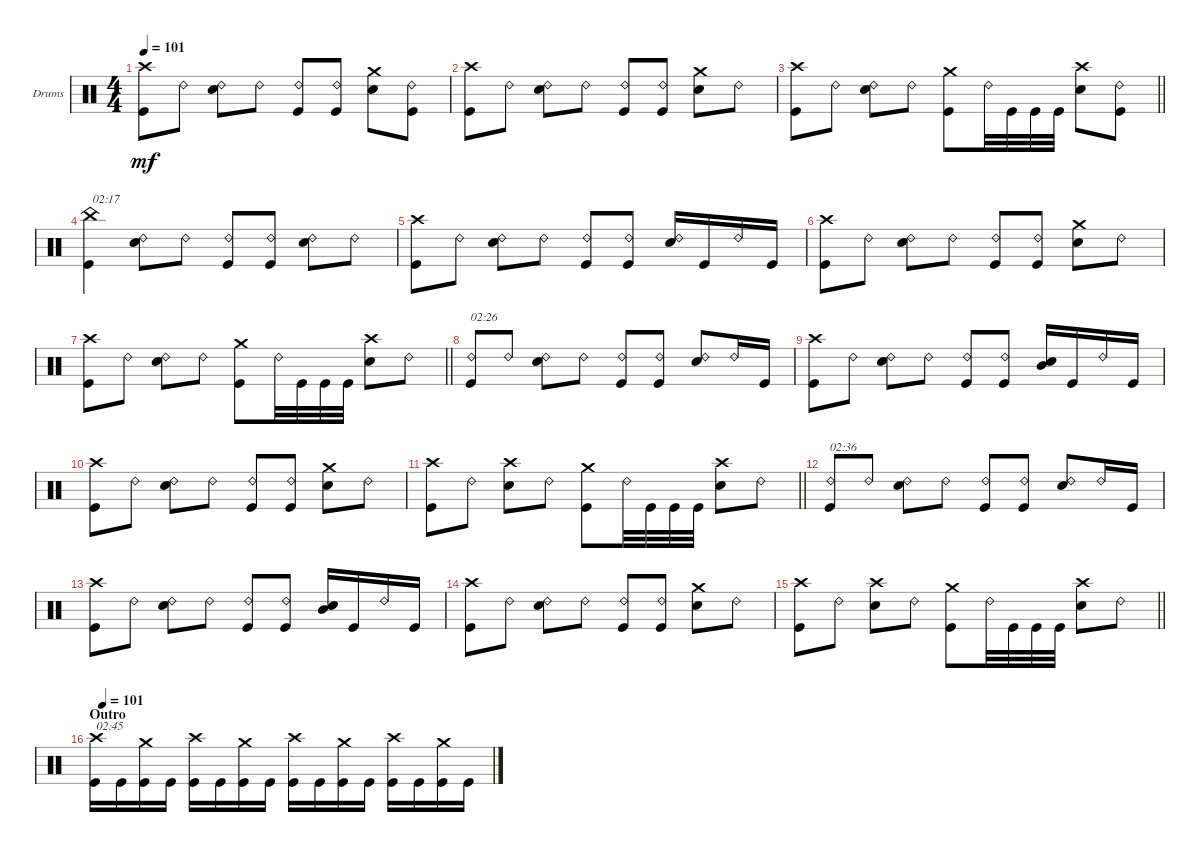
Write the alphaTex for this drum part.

\bracketExtendMode groupsimilarinstruments
\firstSystemTrackNameOrientation horizontal
\otherSystemsTrackNameOrientation horizontal
\track ("Drumkit" "Drums") {instrument percussion}
\staff {score}
\articulation defaults
\ts (4 4)
\tempo 101
\clef neutral
\ks c
("Kick (hit)" "Crash high (hit)").8{dy mf} "Ride (bell) 2".8 ("Snare (hit) 2" "Ride (bell) 2").8 "Ride (bell) 2".8 ("Kick (hit)" "Ride (bell) 2").8 ("Kick (hit)" "Ride (bell) 2").8 ("Snare (hit) 2" "Crash medium (hit)").8 ("Ride (bell) 2" "Kick (hit)").8 |
("Kick (hit)" "Crash high (hit)").8 "Ride (bell) 2".8 ("Snare (hit) 2" "Ride (bell) 2").8 "Ride (bell) 2".8 ("Kick (hit)" "Ride (bell) 2").8 ("Kick (hit)" "Ride (bell) 2").8 ("Snare (hit) 2" "Crash medium (hit)").8 "Ride (bell) 2".8 |
\barLineRight lightlight
("Kick (hit)" "Crash high (hit)").8 "Ride (bell) 2".8 ("Snare (hit) 2" "Ride (bell) 2").8 "Ride (bell) 2".8 ("Kick (hit)" "Crash medium (hit)").8 "Ride (bell) 2".32 "Kick (hit)".32 "Kick (hit)".32 "Kick (hit)".32 ("Snare (hit) 2" "Crash high (hit)").8 ("Ride (bell) 2" "Kick (hit)").8 |
("Kick (hit)" "China (hit)").4{txt "02:17"} ("Snare (hit) 2" "Ride (bell) 2").8 "Ride (bell) 2".8 ("Kick (hit)" "Ride (bell) 2").8 ("Ride (bell) 2" "Kick (hit)").8 ("Snare (hit) 2" "Ride (bell) 2").8 "Ride (bell) 2".8 |
("Kick (hit)" "Crash high (hit)").8 "Ride (bell) 2".8 ("Snare (hit) 2" "Ride (bell) 2").8 "Ride (bell) 2".8 ("Kick (hit)" "Ride (bell) 2").8 ("Kick (hit)" "Ride (bell) 2").8 ("Snare (hit) 2" "Ride (bell) 2").16 "Kick (hit)".16 "Ride (bell) 2".16 "Kick (hit)".16 |
("Kick (hit)" "Crash high (hit)").8 "Ride (bell) 2".8 ("Snare (hit) 2" "Ride (bell) 2").8 "Ride (bell) 2".8 ("Kick (hit)" "Ride (bell) 2").8 ("Ride (bell) 2" "Kick (hit)").8 ("Snare (hit) 2" "Crash medium (hit)").8 "Ride (bell) 2".8 |
\barLineRight lightlight
("Kick (hit)" "Crash high (hit)").8 "Ride (bell) 2".8 ("Snare (hit) 2" "Ride (bell) 2").8 "Ride (bell) 2".8 ("Kick (hit)" "Crash medium (hit)").8 "Ride (bell) 2".32 "Kick (hit)".32 "Kick (hit)".32 "Kick (hit)".32 ("Snare (hit) 2" "Crash high (hit)").8 "Ride (bell) 2".8 |
("Kick (hit)" "Ride (bell) 2").8{txt "02:26"} "Ride (bell) 2".8 ("Snare (hit) 2" "Ride (bell) 2").8 "Ride (bell) 2".8 ("Kick (hit)" "Ride (bell) 2").8 ("Ride (bell) 2" "Kick (hit)").8 ("Snare (hit) 2" "Ride (bell) 2").8 "Ride (bell) 2".16 "Kick (hit)".16 |
("Kick (hit)" "Crash high (hit)").8 "Ride (bell) 2".8 ("Snare (hit) 2" "Ride (bell) 2").8 "Ride (bell) 2".8 ("Kick (hit)" "Ride (bell) 2").8 ("Ride (bell) 2" "Kick (hit)").8 ("Snare (hit) 2" "Mid Tom (hit)").16 "Kick (hit)".16 "Ride (bell) 2".16 "Kick (hit)".16 |
("Kick (hit)" "Crash high (hit)").8 "Ride (bell) 2".8 ("Snare (hit) 2" "Ride (bell) 2").8 "Ride (bell) 2".8 ("Kick (hit)" "Ride (bell) 2").8 ("Ride (bell) 2" "Kick (hit)").8 ("Snare (hit) 2" "Crash medium (hit)").8 "Ride (bell) 2".8 |
\barLineRight lightlight
("Kick (hit)" "Crash high (hit)").8 "Ride (bell) 2".8 ("Snare (hit) 2" "Crash high (hit)").8 "Ride (bell) 2".8 ("Kick (hit)" "Crash medium (hit)").8 "Ride (bell) 2".32 "Kick (hit)".32 "Kick (hit)".32 "Kick (hit)".32 ("Snare (hit) 2" "Crash high (hit)").8 "Ride (bell) 2".8 |
("Kick (hit)" "Ride (bell) 2").8{txt "02:36"} "Ride (bell) 2".8 ("Snare (hit) 2" "Ride (bell) 2").8 "Ride (bell) 2".8 ("Kick (hit)" "Ride (bell) 2").8 ("Ride (bell) 2" "Kick (hit)").8 ("Snare (hit) 2" "Ride (bell) 2").8 "Ride (bell) 2".16 "Kick (hit)".16 |
("Kick (hit)" "Crash high (hit)").8 "Ride (bell) 2".8 ("Snare (hit) 2" "Ride (bell) 2").8 "Ride (bell) 2".8 ("Kick (hit)" "Ride (bell) 2").8 ("Ride (bell) 2" "Kick (hit)").8 ("Snare (hit) 2" "Mid Tom (hit)").16 "Kick (hit)".16 "Ride (bell) 2".16 "Kick (hit)".16 |
("Kick (hit)" "Crash high (hit)").8 "Ride (bell) 2".8 ("Snare (hit) 2" "Ride (bell) 2").8 "Ride (bell) 2".8 ("Kick (hit)" "Ride (bell) 2").8 ("Ride (bell) 2" "Kick (hit)").8 ("Snare (hit) 2" "Crash medium (hit)").8 "Ride (bell) 2".8 |
\barLineRight lightlight
("Kick (hit)" "Crash high (hit)").8 "Ride (bell) 2".8 ("Snare (hit) 2" "Crash high (hit)").8 "Ride (bell) 2".8 ("Kick (hit)" "Crash medium (hit)").8 "Ride (bell) 2".32 "Kick (hit)".32 "Kick (hit)".32 "Kick (hit)".32 ("Snare (hit) 2" "Crash high (hit)").8 "Ride (bell) 2".8 |
\section ("" "Outro")
\tempo (101 0.01875)
("Kick (hit)" "Crash high (hit)").16{txt "02:45"} "Kick (hit)".16 ("Kick (hit)" "Crash medium (hit)").16 "Kick (hit)".16 ("Kick (hit)" "Crash high (hit)").16 "Kick (hit)".16 ("Kick (hit)" "Crash medium (hit)").16 "Kick (hit)".16 ("Kick (hit)" "Crash high (hit)").16 "Kick (hit)".16 ("Kick (hit)" "Crash medium (hit)").16 "Kick (hit)".16 ("Kick (hit)" "Crash high (hit)").16 "Kick (hit)".16 ("Kick (hit)" "Crash medium (hit)").16 "Kick (hit)".16
